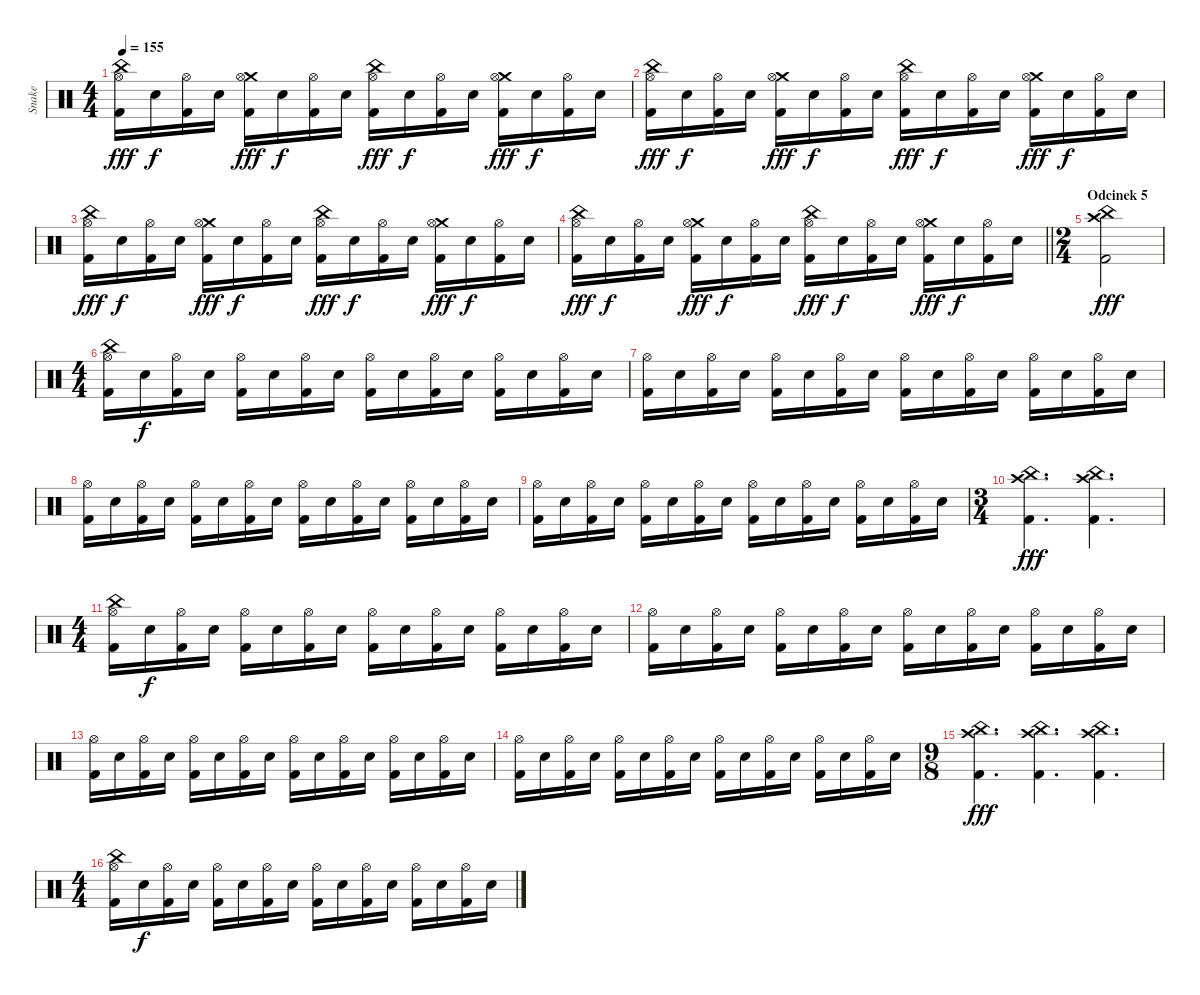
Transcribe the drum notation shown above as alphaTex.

\track ("Snake" "Snake") {instrument percussion}
\staff {score}
\articulation defaults
\ts (4 4)
\tempo 155
\clef neutral
\ks c
("China (hit)" "Hi-Hat (open)" "Kick (hit) 2").16{dy fff} "Snare (hit) 2".16{dy f} ("Hi-Hat (open)" "Kick (hit) 2").16 "Snare (hit) 2".16 ("Crash medium (hit)" "Hi-Hat (open)" "Kick (hit) 2").16{dy fff} "Snare (hit) 2".16{dy f} ("Hi-Hat (open)" "Kick (hit) 2").16 "Snare (hit) 2".16 ("China (hit)" "Hi-Hat (open)" "Kick (hit) 2").16{dy fff} "Snare (hit) 2".16{dy f} ("Hi-Hat (open)" "Kick (hit) 2").16 "Snare (hit) 2".16 ("Crash medium (hit)" "Hi-Hat (open)" "Kick (hit) 2").16{dy fff} "Snare (hit) 2".16{dy f} ("Hi-Hat (open)" "Kick (hit) 2").16 "Snare (hit) 2".16 |
("China (hit)" "Hi-Hat (open)" "Kick (hit) 2").16{dy fff} "Snare (hit) 2".16{dy f} ("Hi-Hat (open)" "Kick (hit) 2").16 "Snare (hit) 2".16 ("Crash medium (hit)" "Hi-Hat (open)" "Kick (hit) 2").16{dy fff} "Snare (hit) 2".16{dy f} ("Hi-Hat (open)" "Kick (hit) 2").16 "Snare (hit) 2".16 ("China (hit)" "Hi-Hat (open)" "Kick (hit) 2").16{dy fff} "Snare (hit) 2".16{dy f} ("Hi-Hat (open)" "Kick (hit) 2").16 "Snare (hit) 2".16 ("Crash medium (hit)" "Hi-Hat (open)" "Kick (hit) 2").16{dy fff} "Snare (hit) 2".16{dy f} ("Hi-Hat (open)" "Kick (hit) 2").16 "Snare (hit) 2".16 |
("China (hit)" "Hi-Hat (open)" "Kick (hit) 2").16{dy fff} "Snare (hit) 2".16{dy f} ("Hi-Hat (open)" "Kick (hit) 2").16 "Snare (hit) 2".16 ("Crash medium (hit)" "Hi-Hat (open)" "Kick (hit) 2").16{dy fff} "Snare (hit) 2".16{dy f} ("Hi-Hat (open)" "Kick (hit) 2").16 "Snare (hit) 2".16 ("China (hit)" "Hi-Hat (open)" "Kick (hit) 2").16{dy fff} "Snare (hit) 2".16{dy f} ("Hi-Hat (open)" "Kick (hit) 2").16 "Snare (hit) 2".16 ("Crash medium (hit)" "Hi-Hat (open)" "Kick (hit) 2").16{dy fff} "Snare (hit) 2".16{dy f} ("Hi-Hat (open)" "Kick (hit) 2").16 "Snare (hit) 2".16 |
\barLineRight lightlight
("China (hit)" "Hi-Hat (open)" "Kick (hit) 2").16{dy fff} "Snare (hit) 2".16{dy f} ("Hi-Hat (open)" "Kick (hit) 2").16 "Snare (hit) 2".16 ("Crash medium (hit)" "Hi-Hat (open)" "Kick (hit) 2").16{dy fff} "Snare (hit) 2".16{dy f} ("Hi-Hat (open)" "Kick (hit) 2").16 "Snare (hit) 2".16 ("China (hit)" "Hi-Hat (open)" "Kick (hit) 2").16{dy fff} "Snare (hit) 2".16{dy f} ("Hi-Hat (open)" "Kick (hit) 2").16 "Snare (hit) 2".16 ("Crash medium (hit)" "Hi-Hat (open)" "Kick (hit) 2").16{dy fff} "Snare (hit) 2".16{dy f} ("Hi-Hat (open)" "Kick (hit) 2").16 "Snare (hit) 2".16 |
\ts (2 4)
\section ("" "Odcinek 5")
("Crash high (hit)" "China (hit)" "Kick (hit) 2").2{dy fff} |
\ts (4 4)
("China (hit)" "Hi-Hat (open)" "Kick (hit) 2").16 "Snare (hit) 2".16{dy f} ("Hi-Hat (open)" "Kick (hit) 2").16 "Snare (hit) 2".16 ("Hi-Hat (open)" "Kick (hit) 2").16 "Snare (hit) 2".16 ("Hi-Hat (open)" "Kick (hit) 2").16 "Snare (hit) 2".16 ("Hi-Hat (open)" "Kick (hit) 2").16 "Snare (hit) 2".16 ("Hi-Hat (open)" "Kick (hit) 2").16 "Snare (hit) 2".16 ("Hi-Hat (open)" "Kick (hit) 2").16 "Snare (hit) 2".16 ("Hi-Hat (open)" "Kick (hit) 2").16 "Snare (hit) 2".16 |
("Hi-Hat (open)" "Kick (hit) 2").16 "Snare (hit) 2".16 ("Hi-Hat (open)" "Kick (hit) 2").16 "Snare (hit) 2".16 ("Hi-Hat (open)" "Kick (hit) 2").16 "Snare (hit) 2".16 ("Hi-Hat (open)" "Kick (hit) 2").16 "Snare (hit) 2".16 ("Hi-Hat (open)" "Kick (hit) 2").16 "Snare (hit) 2".16 ("Hi-Hat (open)" "Kick (hit) 2").16 "Snare (hit) 2".16 ("Hi-Hat (open)" "Kick (hit) 2").16 "Snare (hit) 2".16 ("Hi-Hat (open)" "Kick (hit) 2").16 "Snare (hit) 2".16 |
("Hi-Hat (open)" "Kick (hit) 2").16 "Snare (hit) 2".16 ("Hi-Hat (open)" "Kick (hit) 2").16 "Snare (hit) 2".16 ("Hi-Hat (open)" "Kick (hit) 2").16 "Snare (hit) 2".16 ("Hi-Hat (open)" "Kick (hit) 2").16 "Snare (hit) 2".16 ("Hi-Hat (open)" "Kick (hit) 2").16 "Snare (hit) 2".16 ("Hi-Hat (open)" "Kick (hit) 2").16 "Snare (hit) 2".16 ("Hi-Hat (open)" "Kick (hit) 2").16 "Snare (hit) 2".16 ("Hi-Hat (open)" "Kick (hit) 2").16 "Snare (hit) 2".16 |
("Hi-Hat (open)" "Kick (hit) 2").16 "Snare (hit) 2".16 ("Hi-Hat (open)" "Kick (hit) 2").16 "Snare (hit) 2".16 ("Hi-Hat (open)" "Kick (hit) 2").16 "Snare (hit) 2".16 ("Hi-Hat (open)" "Kick (hit) 2").16 "Snare (hit) 2".16 ("Hi-Hat (open)" "Kick (hit) 2").16 "Snare (hit) 2".16 ("Hi-Hat (open)" "Kick (hit) 2").16 "Snare (hit) 2".16 ("Hi-Hat (open)" "Kick (hit) 2").16 "Snare (hit) 2".16 ("Hi-Hat (open)" "Kick (hit) 2").16 "Snare (hit) 2".16 |
\ts (3 4)
("Crash high (hit)" "China (hit)" "Kick (hit) 2").4{d dy fff} ("Crash high (hit)" "China (hit)" "Kick (hit) 2").4{d} |
\ts (4 4)
("China (hit)" "Hi-Hat (open)" "Kick (hit) 2").16 "Snare (hit) 2".16{dy f} ("Hi-Hat (open)" "Kick (hit) 2").16 "Snare (hit) 2".16 ("Hi-Hat (open)" "Kick (hit) 2").16 "Snare (hit) 2".16 ("Hi-Hat (open)" "Kick (hit) 2").16 "Snare (hit) 2".16 ("Hi-Hat (open)" "Kick (hit) 2").16 "Snare (hit) 2".16 ("Hi-Hat (open)" "Kick (hit) 2").16 "Snare (hit) 2".16 ("Hi-Hat (open)" "Kick (hit) 2").16 "Snare (hit) 2".16 ("Hi-Hat (open)" "Kick (hit) 2").16 "Snare (hit) 2".16 |
("Hi-Hat (open)" "Kick (hit) 2").16 "Snare (hit) 2".16 ("Hi-Hat (open)" "Kick (hit) 2").16 "Snare (hit) 2".16 ("Hi-Hat (open)" "Kick (hit) 2").16 "Snare (hit) 2".16 ("Hi-Hat (open)" "Kick (hit) 2").16 "Snare (hit) 2".16 ("Hi-Hat (open)" "Kick (hit) 2").16 "Snare (hit) 2".16 ("Hi-Hat (open)" "Kick (hit) 2").16 "Snare (hit) 2".16 ("Hi-Hat (open)" "Kick (hit) 2").16 "Snare (hit) 2".16 ("Hi-Hat (open)" "Kick (hit) 2").16 "Snare (hit) 2".16 |
("Hi-Hat (open)" "Kick (hit) 2").16 "Snare (hit) 2".16 ("Hi-Hat (open)" "Kick (hit) 2").16 "Snare (hit) 2".16 ("Hi-Hat (open)" "Kick (hit) 2").16 "Snare (hit) 2".16 ("Hi-Hat (open)" "Kick (hit) 2").16 "Snare (hit) 2".16 ("Hi-Hat (open)" "Kick (hit) 2").16 "Snare (hit) 2".16 ("Hi-Hat (open)" "Kick (hit) 2").16 "Snare (hit) 2".16 ("Hi-Hat (open)" "Kick (hit) 2").16 "Snare (hit) 2".16 ("Hi-Hat (open)" "Kick (hit) 2").16 "Snare (hit) 2".16 |
("Hi-Hat (open)" "Kick (hit) 2").16 "Snare (hit) 2".16 ("Hi-Hat (open)" "Kick (hit) 2").16 "Snare (hit) 2".16 ("Hi-Hat (open)" "Kick (hit) 2").16 "Snare (hit) 2".16 ("Hi-Hat (open)" "Kick (hit) 2").16 "Snare (hit) 2".16 ("Hi-Hat (open)" "Kick (hit) 2").16 "Snare (hit) 2".16 ("Hi-Hat (open)" "Kick (hit) 2").16 "Snare (hit) 2".16 ("Hi-Hat (open)" "Kick (hit) 2").16 "Snare (hit) 2".16 ("Hi-Hat (open)" "Kick (hit) 2").16 "Snare (hit) 2".16 |
\ts (9 8)
("Crash high (hit)" "China (hit)" "Kick (hit) 2").4{d dy fff} ("Crash high (hit)" "China (hit)" "Kick (hit) 2").4{d} ("Crash high (hit)" "China (hit)" "Kick (hit) 2").4{d} |
\ts (4 4)
("China (hit)" "Hi-Hat (open)" "Kick (hit) 2").16 "Snare (hit) 2".16{dy f} ("Hi-Hat (open)" "Kick (hit) 2").16 "Snare (hit) 2".16 ("Hi-Hat (open)" "Kick (hit) 2").16 "Snare (hit) 2".16 ("Hi-Hat (open)" "Kick (hit) 2").16 "Snare (hit) 2".16 ("Hi-Hat (open)" "Kick (hit) 2").16 "Snare (hit) 2".16 ("Hi-Hat (open)" "Kick (hit) 2").16 "Snare (hit) 2".16 ("Hi-Hat (open)" "Kick (hit) 2").16 "Snare (hit) 2".16 ("Hi-Hat (open)" "Kick (hit) 2").16 "Snare (hit) 2".16
